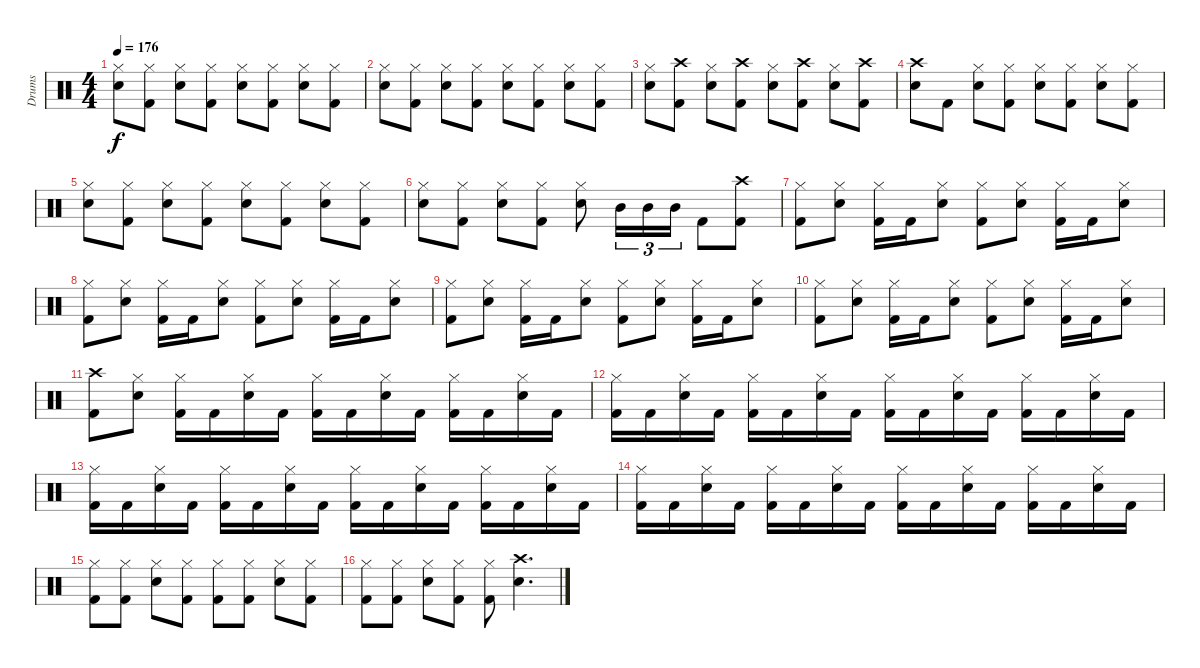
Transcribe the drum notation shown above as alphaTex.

\track ("Drums" "Drums") {instrument percussion}
\staff {score}
\articulation defaults
\ts (4 4)
\tempo 176
\clef neutral
\ks c
("Hi-Hat (closed)" "Electric Snare (hit)").8{dy f} ("Hi-Hat (closed)" "Kick (hit) 2").8 ("Hi-Hat (closed)" "Electric Snare (hit)").8 ("Hi-Hat (closed)" "Kick (hit) 2").8 ("Hi-Hat (closed)" "Electric Snare (hit)").8 ("Hi-Hat (closed)" "Kick (hit) 2").8 ("Hi-Hat (closed)" "Electric Snare (hit)").8 ("Hi-Hat (closed)" "Kick (hit) 2").8 |
("Hi-Hat (closed)" "Electric Snare (hit)").8 ("Hi-Hat (closed)" "Kick (hit) 2").8 ("Hi-Hat (closed)" "Electric Snare (hit)").8 ("Hi-Hat (closed)" "Kick (hit) 2").8 ("Hi-Hat (closed)" "Electric Snare (hit)").8 ("Hi-Hat (closed)" "Kick (hit) 2").8 ("Hi-Hat (closed)" "Electric Snare (hit)").8 ("Hi-Hat (closed)" "Kick (hit) 2").8 |
("Hi-Hat (closed)" "Electric Snare (hit)").8 ("Crash high (hit)" "Kick (hit) 2").8 ("Hi-Hat (closed)" "Electric Snare (hit)").8 ("Crash high (hit)" "Kick (hit) 2").8 ("Hi-Hat (closed)" "Electric Snare (hit)").8 ("Crash high (hit)" "Kick (hit) 2").8 ("Hi-Hat (closed)" "Electric Snare (hit)").8 ("Crash high (hit)" "Kick (hit) 2").8 |
("Crash high (hit)" "Electric Snare (hit)").8 "Kick (hit) 2".8 ("Hi-Hat (closed)" "Electric Snare (hit)").8 ("Hi-Hat (closed)" "Kick (hit) 2").8 ("Hi-Hat (closed)" "Electric Snare (hit)").8 ("Hi-Hat (closed)" "Kick (hit) 2").8 ("Hi-Hat (closed)" "Electric Snare (hit)").8 ("Hi-Hat (closed)" "Kick (hit) 2").8 |
("Hi-Hat (closed)" "Electric Snare (hit)").8 ("Hi-Hat (closed)" "Kick (hit) 2").8 ("Hi-Hat (closed)" "Electric Snare (hit)").8 ("Hi-Hat (closed)" "Kick (hit) 2").8 ("Hi-Hat (closed)" "Electric Snare (hit)").8 ("Hi-Hat (closed)" "Kick (hit) 2").8 ("Hi-Hat (closed)" "Electric Snare (hit)").8 ("Hi-Hat (closed)" "Kick (hit) 2").8 |
("Hi-Hat (closed)" "Electric Snare (hit)").8 ("Hi-Hat (closed)" "Kick (hit) 2").8 ("Hi-Hat (closed)" "Electric Snare (hit)").8 ("Hi-Hat (closed)" "Kick (hit) 2").8 ("Hi-Hat (closed)" "Electric Snare (hit)").8 "Mid Tom (hit)".16{tu (3 2)} "Mid Tom (hit)".16{tu (3 2)} "Mid Tom (hit)".16{tu (3 2)} "Kick (hit) 2".8 ("Crash high (hit)" "Kick (hit) 2").8 |
("Hi-Hat (closed)" "Kick (hit) 2").8 ("Hi-Hat (closed)" "Electric Snare (hit)").8 ("Hi-Hat (closed)" "Kick (hit) 2").16 "Kick (hit) 2".16 ("Hi-Hat (closed)" "Electric Snare (hit)").8 ("Hi-Hat (closed)" "Kick (hit) 2").8 ("Hi-Hat (closed)" "Electric Snare (hit)").8 ("Hi-Hat (closed)" "Kick (hit) 2").16 "Kick (hit) 2".16 ("Hi-Hat (closed)" "Electric Snare (hit)").8 |
("Hi-Hat (closed)" "Kick (hit) 2").8 ("Hi-Hat (closed)" "Electric Snare (hit)").8 ("Hi-Hat (closed)" "Kick (hit) 2").16 "Kick (hit) 2".16 ("Hi-Hat (closed)" "Electric Snare (hit)").8 ("Hi-Hat (closed)" "Kick (hit) 2").8 ("Hi-Hat (closed)" "Electric Snare (hit)").8 ("Hi-Hat (closed)" "Kick (hit) 2").16 "Kick (hit) 2".16 ("Hi-Hat (closed)" "Electric Snare (hit)").8 |
("Hi-Hat (closed)" "Kick (hit) 2").8 ("Hi-Hat (closed)" "Electric Snare (hit)").8 ("Hi-Hat (closed)" "Kick (hit) 2").16 "Kick (hit) 2".16 ("Hi-Hat (closed)" "Electric Snare (hit)").8 ("Hi-Hat (closed)" "Kick (hit) 2").8 ("Hi-Hat (closed)" "Electric Snare (hit)").8 ("Hi-Hat (closed)" "Kick (hit) 2").16 "Kick (hit) 2".16 ("Hi-Hat (closed)" "Electric Snare (hit)").8 |
("Hi-Hat (closed)" "Kick (hit) 2").8 ("Hi-Hat (closed)" "Electric Snare (hit)").8 ("Hi-Hat (closed)" "Kick (hit) 2").16 "Kick (hit) 2".16 ("Hi-Hat (closed)" "Electric Snare (hit)").8 ("Hi-Hat (closed)" "Kick (hit) 2").8 ("Hi-Hat (closed)" "Electric Snare (hit)").8 ("Hi-Hat (closed)" "Kick (hit) 2").16 "Kick (hit) 2".16 ("Hi-Hat (closed)" "Electric Snare (hit)").8 |
("Crash high (hit)" "Kick (hit) 2").8 ("Hi-Hat (closed)" "Electric Snare (hit)").8 ("Hi-Hat (closed)" "Kick (hit) 2").16 "Kick (hit) 2".16 ("Hi-Hat (closed)" "Electric Snare (hit)").16 "Kick (hit) 2".16 ("Hi-Hat (closed)" "Kick (hit) 2").16 "Kick (hit) 2".16 ("Hi-Hat (closed)" "Electric Snare (hit)").16 "Kick (hit) 2".16 ("Hi-Hat (closed)" "Kick (hit) 2").16 "Kick (hit) 2".16 ("Hi-Hat (closed)" "Electric Snare (hit)").16 "Kick (hit) 2".16 |
("Hi-Hat (closed)" "Kick (hit) 2").16 "Kick (hit) 2".16 ("Hi-Hat (closed)" "Electric Snare (hit)").16 "Kick (hit) 2".16 ("Hi-Hat (closed)" "Kick (hit) 2").16 "Kick (hit) 2".16 ("Hi-Hat (closed)" "Electric Snare (hit)").16 "Kick (hit) 2".16 ("Hi-Hat (closed)" "Kick (hit) 2").16 "Kick (hit) 2".16 ("Hi-Hat (closed)" "Electric Snare (hit)").16 "Kick (hit) 2".16 ("Hi-Hat (closed)" "Kick (hit) 2").16 "Kick (hit) 2".16 ("Hi-Hat (closed)" "Electric Snare (hit)").16 "Kick (hit) 2".16 |
("Hi-Hat (closed)" "Kick (hit) 2").16 "Kick (hit) 2".16 ("Hi-Hat (closed)" "Electric Snare (hit)").16 "Kick (hit) 2".16 ("Hi-Hat (closed)" "Kick (hit) 2").16 "Kick (hit) 2".16 ("Hi-Hat (closed)" "Electric Snare (hit)").16 "Kick (hit) 2".16 ("Hi-Hat (closed)" "Kick (hit) 2").16 "Kick (hit) 2".16 ("Hi-Hat (closed)" "Electric Snare (hit)").16 "Kick (hit) 2".16 ("Hi-Hat (closed)" "Kick (hit) 2").16 "Kick (hit) 2".16 ("Hi-Hat (closed)" "Electric Snare (hit)").16 "Kick (hit) 2".16 |
("Hi-Hat (closed)" "Kick (hit) 2").16 "Kick (hit) 2".16 ("Hi-Hat (closed)" "Electric Snare (hit)").16 "Kick (hit) 2".16 ("Hi-Hat (closed)" "Kick (hit) 2").16 "Kick (hit) 2".16 ("Hi-Hat (closed)" "Electric Snare (hit)").16 "Kick (hit) 2".16 ("Hi-Hat (closed)" "Kick (hit) 2").16 "Kick (hit) 2".16 ("Hi-Hat (closed)" "Electric Snare (hit)").16 "Kick (hit) 2".16 ("Hi-Hat (closed)" "Kick (hit) 2").16 "Kick (hit) 2".16 ("Hi-Hat (closed)" "Electric Snare (hit)").16 "Kick (hit) 2".16 |
("Hi-Hat (closed)" "Kick (hit) 2").8 ("Hi-Hat (closed)" "Kick (hit) 2").8 ("Hi-Hat (closed)" "Electric Snare (hit)").8 ("Hi-Hat (closed)" "Kick (hit) 2").8 ("Hi-Hat (closed)" "Kick (hit) 2").8 ("Hi-Hat (closed)" "Kick (hit) 2").8 ("Hi-Hat (closed)" "Electric Snare (hit)").8 ("Hi-Hat (closed)" "Kick (hit) 2").8 |
("Hi-Hat (closed)" "Kick (hit) 2").8 ("Hi-Hat (closed)" "Kick (hit) 2").8 ("Hi-Hat (closed)" "Electric Snare (hit)").8 ("Hi-Hat (closed)" "Kick (hit) 2").8 ("Hi-Hat (closed)" "Kick (hit) 2").8 ("Crash high (hit)" "Electric Snare (hit)").4{d}
